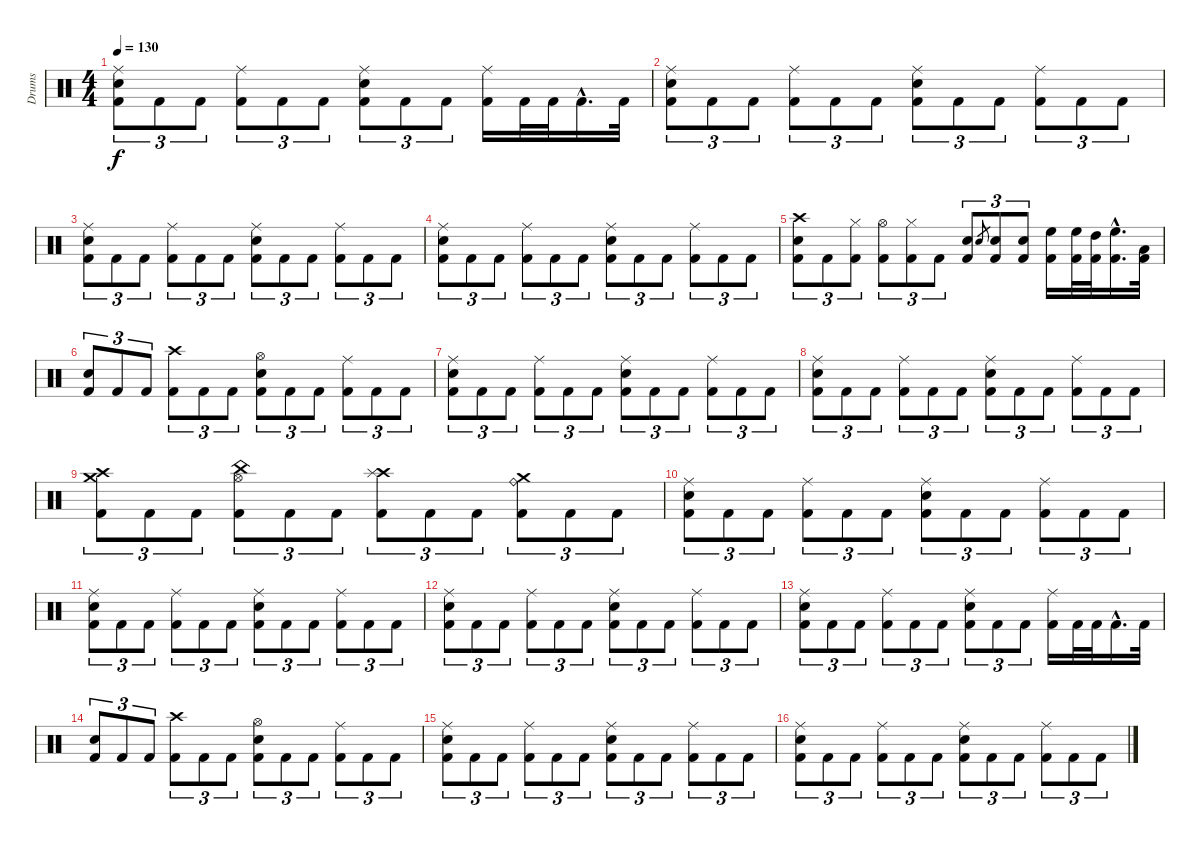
\track ("Drums" "Drums") {instrument percussion}
\staff {score}
\articulation defaults
\ts (4 4)
\tempo 130
\clef neutral
\ks c
("Ride (middle)" "Snare (hit) 2" "Kick (hit) 2").8{tu (3 2) dy f} "Kick (hit) 2".8{tu (3 2)} "Kick (hit) 2".8{tu (3 2)} ("Ride (middle)" "Kick (hit) 2").8{tu (3 2)} "Kick (hit) 2".8{tu (3 2)} "Kick (hit) 2".8{tu (3 2)} ("Ride (middle)" "Snare (hit) 2" "Kick (hit) 2").8{tu (3 2)} "Kick (hit) 2".8{tu (3 2)} "Kick (hit) 2".8{tu (3 2)} ("Ride (middle)" "Kick (hit) 2").16 "Kick (hit) 2".32 "Kick (hit) 2".32 "Kick (hit) 2"{hac}.16{d} "Kick (hit) 2".32 |
("Ride (middle)" "Snare (hit) 2" "Kick (hit) 2").8{tu (3 2)} "Kick (hit) 2".8{tu (3 2)} "Kick (hit) 2".8{tu (3 2)} ("Ride (middle)" "Kick (hit) 2").8{tu (3 2)} "Kick (hit) 2".8{tu (3 2)} "Kick (hit) 2".8{tu (3 2)} ("Ride (middle)" "Snare (hit) 2" "Kick (hit) 2").8{tu (3 2)} "Kick (hit) 2".8{tu (3 2)} "Kick (hit) 2".8{tu (3 2)} ("Ride (middle)" "Kick (hit) 2").8{tu (3 2)} "Kick (hit) 2".8{tu (3 2)} "Kick (hit) 2".8{tu (3 2)} |
("Ride (middle)" "Snare (hit) 2" "Kick (hit) 2").8{tu (3 2)} "Kick (hit) 2".8{tu (3 2)} "Kick (hit) 2".8{tu (3 2)} ("Ride (middle)" "Kick (hit) 2").8{tu (3 2)} "Kick (hit) 2".8{tu (3 2)} "Kick (hit) 2".8{tu (3 2)} ("Ride (middle)" "Snare (hit) 2" "Kick (hit) 2").8{tu (3 2)} "Kick (hit) 2".8{tu (3 2)} "Kick (hit) 2".8{tu (3 2)} ("Ride (middle)" "Kick (hit) 2").8{tu (3 2)} "Kick (hit) 2".8{tu (3 2)} "Kick (hit) 2".8{tu (3 2)} |
("Ride (middle)" "Snare (hit) 2" "Kick (hit) 2").8{tu (3 2)} "Kick (hit) 2".8{tu (3 2)} "Kick (hit) 2".8{tu (3 2)} ("Ride (middle)" "Kick (hit) 2").8{tu (3 2)} "Kick (hit) 2".8{tu (3 2)} "Kick (hit) 2".8{tu (3 2)} ("Ride (middle)" "Snare (hit) 2" "Kick (hit) 2").8{tu (3 2)} "Kick (hit) 2".8{tu (3 2)} "Kick (hit) 2".8{tu (3 2)} ("Ride (middle)" "Kick (hit) 2").8{tu (3 2)} "Kick (hit) 2".8{tu (3 2)} "Kick (hit) 2".8{tu (3 2)} |
("Crash high (hit)" "Snare (hit) 2" "Kick (hit) 2").8{tu (3 2)} "Kick (hit) 2".8{tu (3 2)} ("Hi-Hat (closed)" "Kick (hit) 2").8{tu (3 2)} ("Hi-Hat (open)" "Kick (hit) 2").8{tu (3 2)} ("Hi-Hat (closed)" "Kick (hit) 2").8{tu (3 2)} "Kick (hit) 2".8{tu (3 2)} ("Snare (hit) 2" "Kick (hit) 2").8{tu (3 2)} "Snare (hit) 2".8{gr} ("Snare (hit) 2" "Kick (hit) 2").8{tu (3 2)} ("Snare (hit) 2" "Kick (hit) 2").8{tu (3 2)} ("High Floor Tom (hit)" "Kick (hit) 2").16 ("High Floor Tom (hit)" "Kick (hit) 2").32 ("High Tom (hit)" "Kick (hit) 2").32 ("High Floor Tom (hit)"{hac} "Kick (hit) 2"{hac}).16{d} ("Low Tom (hit)" "Kick (hit) 2").32 |
("Snare (hit) 2" "Kick (hit) 2").8{tu (3 2)} "Kick (hit) 2".8{tu (3 2)} "Kick (hit) 2".8{tu (3 2)} ("Crash high (hit)" "Kick (hit) 2").8{tu (3 2)} "Kick (hit) 2".8{tu (3 2)} "Kick (hit) 2".8{tu (3 2)} ("Hi-Hat (open)" "Snare (hit) 2" "Kick (hit) 2").8{tu (3 2)} "Kick (hit) 2".8{tu (3 2)} "Kick (hit) 2".8{tu (3 2)} ("Ride (middle)" "Kick (hit) 2").8{tu (3 2)} "Kick (hit) 2".8{tu (3 2)} "Kick (hit) 2".8{tu (3 2)} |
("Ride (middle)" "Snare (hit) 2" "Kick (hit) 2").8{tu (3 2)} "Kick (hit) 2".8{tu (3 2)} "Kick (hit) 2".8{tu (3 2)} ("Ride (middle)" "Kick (hit) 2").8{tu (3 2)} "Kick (hit) 2".8{tu (3 2)} "Kick (hit) 2".8{tu (3 2)} ("Ride (middle)" "Snare (hit) 2" "Kick (hit) 2").8{tu (3 2)} "Kick (hit) 2".8{tu (3 2)} "Kick (hit) 2".8{tu (3 2)} ("Ride (middle)" "Kick (hit) 2").8{tu (3 2)} "Kick (hit) 2".8{tu (3 2)} "Kick (hit) 2".8{tu (3 2)} |
("Ride (middle)" "Snare (hit) 2" "Kick (hit) 2").8{tu (3 2)} "Kick (hit) 2".8{tu (3 2)} "Kick (hit) 2".8{tu (3 2)} ("Ride (middle)" "Kick (hit) 2").8{tu (3 2)} "Kick (hit) 2".8{tu (3 2)} "Kick (hit) 2".8{tu (3 2)} ("Ride (middle)" "Snare (hit) 2" "Kick (hit) 2").8{tu (3 2)} "Kick (hit) 2".8{tu (3 2)} "Kick (hit) 2".8{tu (3 2)} ("Ride (middle)" "Kick (hit) 2").8{tu (3 2)} "Kick (hit) 2".8{tu (3 2)} "Kick (hit) 2".8{tu (3 2)} |
("Crash high (hit)" "Crash medium (hit)" "Kick (hit) 2").8{tu (3 2)} "Kick (hit) 2".8{tu (3 2)} "Kick (hit) 2".8{tu (3 2)} ("Hi-Hat (open)" "China (hit)" "Kick (hit) 2").8{tu (3 2)} "Kick (hit) 2".8{tu (3 2)} "Kick (hit) 2".8{tu (3 2)} ("Crash high (hit)" "Splash (hit)" "Kick (hit) 2").8{tu (3 2)} "Kick (hit) 2".8{tu (3 2)} "Kick (hit) 2".8{tu (3 2)} ("Crash medium (hit)" "Ride (bell)" "Kick (hit) 2").8{tu (3 2)} "Kick (hit) 2".8{tu (3 2)} "Kick (hit) 2".8{tu (3 2)} |
("Ride (middle)" "Snare (hit) 2" "Kick (hit) 2").8{tu (3 2)} "Kick (hit) 2".8{tu (3 2)} "Kick (hit) 2".8{tu (3 2)} ("Ride (middle)" "Kick (hit) 2").8{tu (3 2)} "Kick (hit) 2".8{tu (3 2)} "Kick (hit) 2".8{tu (3 2)} ("Ride (middle)" "Snare (hit) 2" "Kick (hit) 2").8{tu (3 2)} "Kick (hit) 2".8{tu (3 2)} "Kick (hit) 2".8{tu (3 2)} ("Ride (middle)" "Kick (hit) 2").8{tu (3 2)} "Kick (hit) 2".8{tu (3 2)} "Kick (hit) 2".8{tu (3 2)} |
("Ride (middle)" "Snare (hit) 2" "Kick (hit) 2").8{tu (3 2)} "Kick (hit) 2".8{tu (3 2)} "Kick (hit) 2".8{tu (3 2)} ("Ride (middle)" "Kick (hit) 2").8{tu (3 2)} "Kick (hit) 2".8{tu (3 2)} "Kick (hit) 2".8{tu (3 2)} ("Ride (middle)" "Snare (hit) 2" "Kick (hit) 2").8{tu (3 2)} "Kick (hit) 2".8{tu (3 2)} "Kick (hit) 2".8{tu (3 2)} ("Ride (middle)" "Kick (hit) 2").8{tu (3 2)} "Kick (hit) 2".8{tu (3 2)} "Kick (hit) 2".8{tu (3 2)} |
("Ride (middle)" "Snare (hit) 2" "Kick (hit) 2").8{tu (3 2)} "Kick (hit) 2".8{tu (3 2)} "Kick (hit) 2".8{tu (3 2)} ("Ride (middle)" "Kick (hit) 2").8{tu (3 2)} "Kick (hit) 2".8{tu (3 2)} "Kick (hit) 2".8{tu (3 2)} ("Ride (middle)" "Snare (hit) 2" "Kick (hit) 2").8{tu (3 2)} "Kick (hit) 2".8{tu (3 2)} "Kick (hit) 2".8{tu (3 2)} ("Ride (middle)" "Kick (hit) 2").8{tu (3 2)} "Kick (hit) 2".8{tu (3 2)} "Kick (hit) 2".8{tu (3 2)} |
("Ride (middle)" "Snare (hit) 2" "Kick (hit) 2").8{tu (3 2)} "Kick (hit) 2".8{tu (3 2)} "Kick (hit) 2".8{tu (3 2)} ("Ride (middle)" "Kick (hit) 2").8{tu (3 2)} "Kick (hit) 2".8{tu (3 2)} "Kick (hit) 2".8{tu (3 2)} ("Ride (middle)" "Snare (hit) 2" "Kick (hit) 2").8{tu (3 2)} "Kick (hit) 2".8{tu (3 2)} "Kick (hit) 2".8{tu (3 2)} ("Ride (middle)" "Kick (hit) 2").16 "Kick (hit) 2".32 "Kick (hit) 2".32 "Kick (hit) 2"{hac}.16{d} "Kick (hit) 2".32 |
("Snare (hit) 2" "Kick (hit) 2").8{tu (3 2)} "Kick (hit) 2".8{tu (3 2)} "Kick (hit) 2".8{tu (3 2)} ("Crash high (hit)" "Kick (hit) 2").8{tu (3 2)} "Kick (hit) 2".8{tu (3 2)} "Kick (hit) 2".8{tu (3 2)} ("Hi-Hat (open)" "Snare (hit) 2" "Kick (hit) 2").8{tu (3 2)} "Kick (hit) 2".8{tu (3 2)} "Kick (hit) 2".8{tu (3 2)} ("Ride (middle)" "Kick (hit) 2").8{tu (3 2)} "Kick (hit) 2".8{tu (3 2)} "Kick (hit) 2".8{tu (3 2)} |
("Ride (middle)" "Snare (hit) 2" "Kick (hit) 2").8{tu (3 2)} "Kick (hit) 2".8{tu (3 2)} "Kick (hit) 2".8{tu (3 2)} ("Ride (middle)" "Kick (hit) 2").8{tu (3 2)} "Kick (hit) 2".8{tu (3 2)} "Kick (hit) 2".8{tu (3 2)} ("Ride (middle)" "Snare (hit) 2" "Kick (hit) 2").8{tu (3 2)} "Kick (hit) 2".8{tu (3 2)} "Kick (hit) 2".8{tu (3 2)} ("Ride (middle)" "Kick (hit) 2").8{tu (3 2)} "Kick (hit) 2".8{tu (3 2)} "Kick (hit) 2".8{tu (3 2)} |
("Ride (middle)" "Snare (hit) 2" "Kick (hit) 2").8{tu (3 2)} "Kick (hit) 2".8{tu (3 2)} "Kick (hit) 2".8{tu (3 2)} ("Ride (middle)" "Kick (hit) 2").8{tu (3 2)} "Kick (hit) 2".8{tu (3 2)} "Kick (hit) 2".8{tu (3 2)} ("Ride (middle)" "Snare (hit) 2" "Kick (hit) 2").8{tu (3 2)} "Kick (hit) 2".8{tu (3 2)} "Kick (hit) 2".8{tu (3 2)} ("Ride (middle)" "Kick (hit) 2").8{tu (3 2)} "Kick (hit) 2".8{tu (3 2)} "Kick (hit) 2".8{tu (3 2)}
